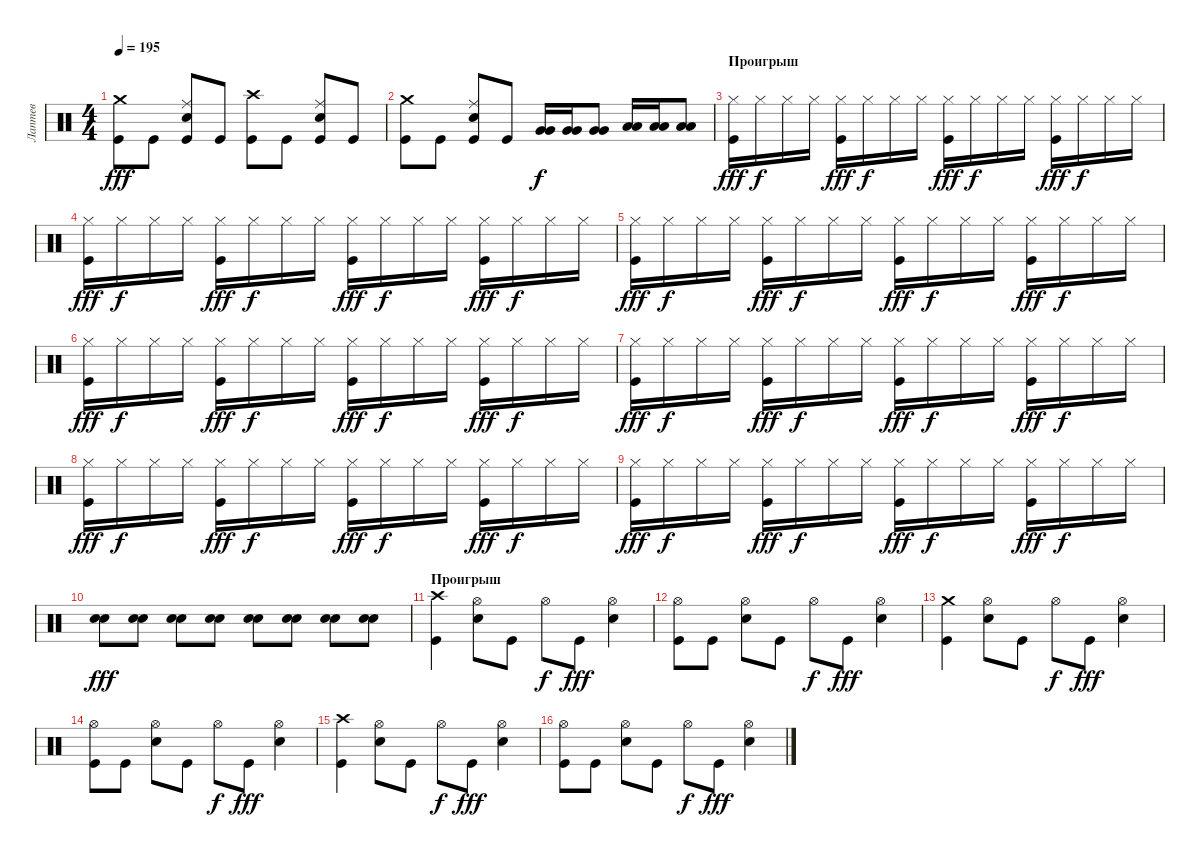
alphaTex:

\track ("Лаптев" "Лаптев") {instrument percussion}
\staff {score}
\articulation defaults
\ts (4 4)
\tempo 195
\clef neutral
\ks c
("Crash medium (hit)" "Kick (hit)").8{dy fff} "Kick (hit)".8 ("Ride (middle)" "Electric Snare (hit)" "Kick (hit)").8 "Kick (hit)".8 ("Crash high (hit)" "Kick (hit)").8 "Kick (hit)".8 ("Ride (middle)" "Electric Snare (hit)" "Kick (hit)").8 "Kick (hit)".8 |
("Crash medium (hit)" "Kick (hit)").8 "Kick (hit)".8 ("Ride (middle)" "Electric Snare (hit)" "Kick (hit)").8 "Kick (hit)".8 ("Very Low Tom (hit)" "Very Low Tom (hit)").16{dy f} ("Very Low Tom (hit)" "Very Low Tom (hit)").16 ("Very Low Tom (hit)" "Very Low Tom (hit)").8 ("Low Floor Tom (hit)" "Low Floor Tom (hit)").16 ("Low Floor Tom (hit)" "Low Floor Tom (hit)").16 ("Low Floor Tom (hit)" "Low Floor Tom (hit)").8 |
\section ("" "Проигрыш")
("Hi-Hat (closed)" "Kick (hit)").16{dy fff} "Hi-Hat (closed)".16{dy f} "Hi-Hat (closed)".16 "Hi-Hat (closed)".16 ("Hi-Hat (closed)" "Kick (hit)").16{dy fff} "Hi-Hat (closed)".16{dy f} "Hi-Hat (closed)".16 "Hi-Hat (closed)".16 ("Hi-Hat (closed)" "Kick (hit)").16{dy fff} "Hi-Hat (closed)".16{dy f} "Hi-Hat (closed)".16 "Hi-Hat (closed)".16 ("Hi-Hat (closed)" "Kick (hit)").16{dy fff} "Hi-Hat (closed)".16{dy f} "Hi-Hat (closed)".16 "Hi-Hat (closed)".16 |
("Hi-Hat (closed)" "Kick (hit)").16{dy fff} "Hi-Hat (closed)".16{dy f} "Hi-Hat (closed)".16 "Hi-Hat (closed)".16 ("Hi-Hat (closed)" "Kick (hit)").16{dy fff} "Hi-Hat (closed)".16{dy f} "Hi-Hat (closed)".16 "Hi-Hat (closed)".16 ("Hi-Hat (closed)" "Kick (hit)").16{dy fff} "Hi-Hat (closed)".16{dy f} "Hi-Hat (closed)".16 "Hi-Hat (closed)".16 ("Hi-Hat (closed)" "Kick (hit)").16{dy fff} "Hi-Hat (closed)".16{dy f} "Hi-Hat (closed)".16 "Hi-Hat (closed)".16 |
("Hi-Hat (closed)" "Kick (hit)").16{dy fff} "Hi-Hat (closed)".16{dy f} "Hi-Hat (closed)".16 "Hi-Hat (closed)".16 ("Hi-Hat (closed)" "Kick (hit)").16{dy fff} "Hi-Hat (closed)".16{dy f} "Hi-Hat (closed)".16 "Hi-Hat (closed)".16 ("Hi-Hat (closed)" "Kick (hit)").16{dy fff} "Hi-Hat (closed)".16{dy f} "Hi-Hat (closed)".16 "Hi-Hat (closed)".16 ("Hi-Hat (closed)" "Kick (hit)").16{dy fff} "Hi-Hat (closed)".16{dy f} "Hi-Hat (closed)".16 "Hi-Hat (closed)".16 |
("Hi-Hat (closed)" "Kick (hit)").16{dy fff} "Hi-Hat (closed)".16{dy f} "Hi-Hat (closed)".16 "Hi-Hat (closed)".16 ("Hi-Hat (closed)" "Kick (hit)").16{dy fff} "Hi-Hat (closed)".16{dy f} "Hi-Hat (closed)".16 "Hi-Hat (closed)".16 ("Hi-Hat (closed)" "Kick (hit)").16{dy fff} "Hi-Hat (closed)".16{dy f} "Hi-Hat (closed)".16 "Hi-Hat (closed)".16 ("Hi-Hat (closed)" "Kick (hit)").16{dy fff} "Hi-Hat (closed)".16{dy f} "Hi-Hat (closed)".16 "Hi-Hat (closed)".16 |
("Hi-Hat (closed)" "Kick (hit)").16{dy fff} "Hi-Hat (closed)".16{dy f} "Hi-Hat (closed)".16 "Hi-Hat (closed)".16 ("Hi-Hat (closed)" "Kick (hit)").16{dy fff} "Hi-Hat (closed)".16{dy f} "Hi-Hat (closed)".16 "Hi-Hat (closed)".16 ("Hi-Hat (closed)" "Kick (hit)").16{dy fff} "Hi-Hat (closed)".16{dy f} "Hi-Hat (closed)".16 "Hi-Hat (closed)".16 ("Hi-Hat (closed)" "Kick (hit)").16{dy fff} "Hi-Hat (closed)".16{dy f} "Hi-Hat (closed)".16 "Hi-Hat (closed)".16 |
("Hi-Hat (closed)" "Kick (hit)").16{dy fff} "Hi-Hat (closed)".16{dy f} "Hi-Hat (closed)".16 "Hi-Hat (closed)".16 ("Hi-Hat (closed)" "Kick (hit)").16{dy fff} "Hi-Hat (closed)".16{dy f} "Hi-Hat (closed)".16 "Hi-Hat (closed)".16 ("Hi-Hat (closed)" "Kick (hit)").16{dy fff} "Hi-Hat (closed)".16{dy f} "Hi-Hat (closed)".16 "Hi-Hat (closed)".16 ("Hi-Hat (closed)" "Kick (hit)").16{dy fff} "Hi-Hat (closed)".16{dy f} "Hi-Hat (closed)".16 "Hi-Hat (closed)".16 |
("Hi-Hat (closed)" "Kick (hit)").16{dy fff} "Hi-Hat (closed)".16{dy f} "Hi-Hat (closed)".16 "Hi-Hat (closed)".16 ("Hi-Hat (closed)" "Kick (hit)").16{dy fff} "Hi-Hat (closed)".16{dy f} "Hi-Hat (closed)".16 "Hi-Hat (closed)".16 ("Hi-Hat (closed)" "Kick (hit)").16{dy fff} "Hi-Hat (closed)".16{dy f} "Hi-Hat (closed)".16 "Hi-Hat (closed)".16 ("Hi-Hat (closed)" "Kick (hit)").16{dy fff} "Hi-Hat (closed)".16{dy f} "Hi-Hat (closed)".16 "Hi-Hat (closed)".16 |
("Electric Snare (hit)" "Electric Snare (hit)").8{dy fff} ("Electric Snare (hit)" "Electric Snare (hit)").8 ("Electric Snare (hit)" "Electric Snare (hit)").8 ("Electric Snare (hit)" "Electric Snare (hit)").8 ("Electric Snare (hit)" "Electric Snare (hit)").8 ("Electric Snare (hit)" "Electric Snare (hit)").8 ("Electric Snare (hit)" "Electric Snare (hit)").8 ("Electric Snare (hit)" "Electric Snare (hit)").8 |
\section ("" "Проигрыш")
("Crash high (hit)" "Kick (hit)").4 ("Hi-Hat (open)" "Electric Snare (hit)").8 "Kick (hit)".8 "Hi-Hat (open)".8{dy f} "Kick (hit)".8{dy fff} ("Hi-Hat (open)" "Electric Snare (hit)").4 |
("Hi-Hat (open)" "Kick (hit)").8 "Kick (hit)".8 ("Hi-Hat (open)" "Electric Snare (hit)").8 "Kick (hit)".8 "Hi-Hat (open)".8{dy f} "Kick (hit)".8{dy fff} ("Hi-Hat (open)" "Electric Snare (hit)").4 |
("Crash medium (hit)" "Kick (hit)").4 ("Hi-Hat (open)" "Electric Snare (hit)").8 "Kick (hit)".8 "Hi-Hat (open)".8{dy f} "Kick (hit)".8{dy fff} ("Hi-Hat (open)" "Electric Snare (hit)").4 |
("Hi-Hat (open)" "Kick (hit)").8 "Kick (hit)".8 ("Hi-Hat (open)" "Electric Snare (hit)").8 "Kick (hit)".8 "Hi-Hat (open)".8{dy f} "Kick (hit)".8{dy fff} ("Hi-Hat (open)" "Electric Snare (hit)").4 |
("Crash high (hit)" "Kick (hit)").4 ("Hi-Hat (open)" "Electric Snare (hit)").8 "Kick (hit)".8 "Hi-Hat (open)".8{dy f} "Kick (hit)".8{dy fff} ("Hi-Hat (open)" "Electric Snare (hit)").4 |
("Hi-Hat (open)" "Kick (hit)").8 "Kick (hit)".8 ("Hi-Hat (open)" "Electric Snare (hit)").8 "Kick (hit)".8 "Hi-Hat (open)".8{dy f} "Kick (hit)".8{dy fff} ("Hi-Hat (open)" "Electric Snare (hit)").4
